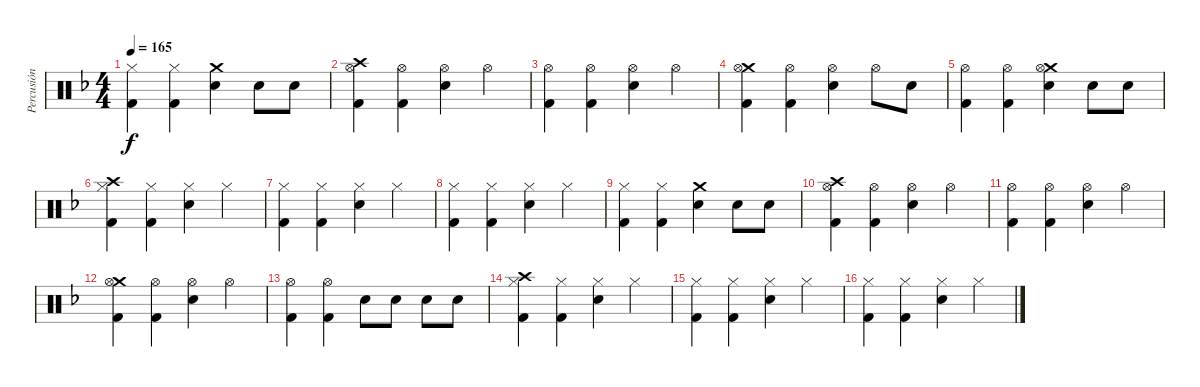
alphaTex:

\track ("Percusión" "Percusión") {instrument percussion}
\staff {score}
\articulation defaults
\ts (4 4)
\tempo 165
\clef neutral
\ks f
("Hi-Hat (closed)" "Kick (hit) 2").4{dy f} ("Hi-Hat (closed)" "Kick (hit) 2").4 ("Crash medium (hit)" "Electric Snare (hit)").4 "Electric Snare (hit)".8 "Electric Snare (hit)".8 |
("Crash high (hit)" "Hi-Hat (open)" "Kick (hit) 2").4 ("Hi-Hat (open)" "Kick (hit) 2").4 ("Hi-Hat (open)" "Electric Snare (hit)").4 "Hi-Hat (open)".4 |
("Hi-Hat (open)" "Kick (hit) 2").4 ("Hi-Hat (open)" "Kick (hit) 2").4 ("Hi-Hat (open)" "Electric Snare (hit)").4 "Hi-Hat (open)".4 |
("Crash medium (hit)" "Hi-Hat (open)" "Kick (hit) 2").4 ("Hi-Hat (open)" "Kick (hit) 2").4 ("Hi-Hat (open)" "Electric Snare (hit)").4 "Hi-Hat (open)".8 "Electric Snare (hit)".8 |
("Hi-Hat (open)" "Kick (hit) 2").4 ("Hi-Hat (open)" "Kick (hit) 2").4 ("Crash medium (hit)" "Hi-Hat (open)" "Electric Snare (hit)").4 "Electric Snare (hit)".8 "Electric Snare (hit)".8 |
("Crash high (hit)" "Hi-Hat (closed)" "Kick (hit) 2").4 ("Hi-Hat (closed)" "Kick (hit) 2").4 ("Hi-Hat (closed)" "Electric Snare (hit)").4 "Hi-Hat (closed)".4 |
("Hi-Hat (closed)" "Kick (hit) 2").4 ("Hi-Hat (closed)" "Kick (hit) 2").4 ("Hi-Hat (closed)" "Electric Snare (hit)").4 "Hi-Hat (closed)".4 |
("Hi-Hat (closed)" "Kick (hit) 2").4 ("Hi-Hat (closed)" "Kick (hit) 2").4 ("Hi-Hat (closed)" "Electric Snare (hit)").4 "Hi-Hat (closed)".4 |
("Hi-Hat (closed)" "Kick (hit) 2").4 ("Hi-Hat (closed)" "Kick (hit) 2").4 ("Crash medium (hit)" "Electric Snare (hit)").4 "Electric Snare (hit)".8 "Electric Snare (hit)".8 |
("Crash high (hit)" "Hi-Hat (open)" "Kick (hit) 2").4 ("Hi-Hat (open)" "Kick (hit) 2").4 ("Hi-Hat (open)" "Electric Snare (hit)").4 "Hi-Hat (open)".4 |
("Hi-Hat (open)" "Kick (hit) 2").4 ("Hi-Hat (open)" "Kick (hit) 2").4 ("Hi-Hat (open)" "Electric Snare (hit)").4 "Hi-Hat (open)".4 |
("Crash medium (hit)" "Hi-Hat (open)" "Kick (hit) 2").4 ("Hi-Hat (open)" "Kick (hit) 2").4 ("Hi-Hat (open)" "Electric Snare (hit)").4 "Hi-Hat (open)".4 |
("Hi-Hat (open)" "Kick (hit) 2").4 ("Hi-Hat (open)" "Kick (hit) 2").4 "Electric Snare (hit)".8 "Electric Snare (hit)".8 "Electric Snare (hit)".8 "Electric Snare (hit)".8 |
("Crash high (hit)" "Hi-Hat (closed)" "Kick (hit) 2").4 ("Hi-Hat (closed)" "Kick (hit) 2").4 ("Hi-Hat (closed)" "Electric Snare (hit)").4 "Hi-Hat (closed)".4 |
("Hi-Hat (closed)" "Kick (hit) 2").4 ("Hi-Hat (closed)" "Kick (hit) 2").4 ("Hi-Hat (closed)" "Electric Snare (hit)").4 "Hi-Hat (closed)".4 |
("Hi-Hat (closed)" "Kick (hit) 2").4 ("Hi-Hat (closed)" "Kick (hit) 2").4 ("Hi-Hat (closed)" "Electric Snare (hit)").4 "Hi-Hat (closed)".4
